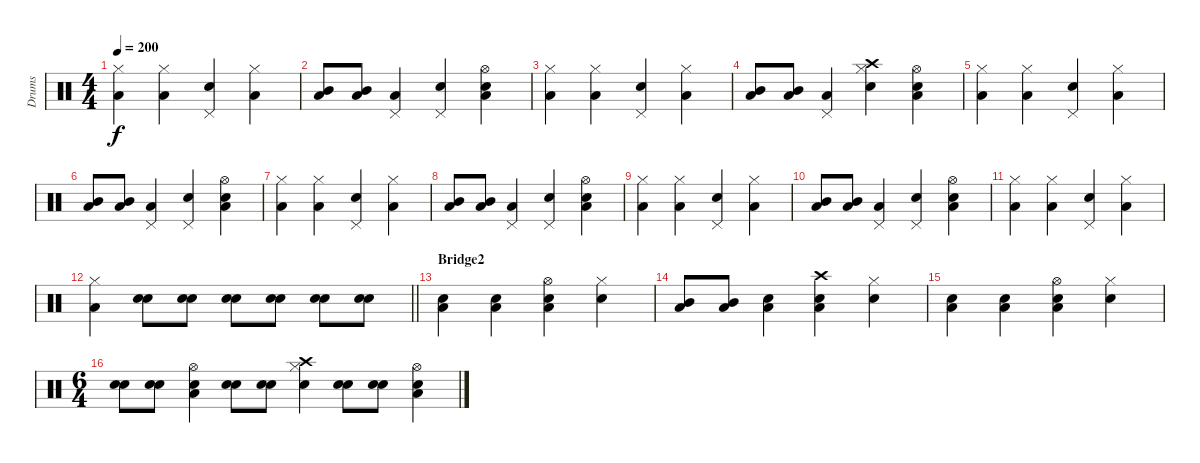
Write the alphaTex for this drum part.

\track ("Drums" "Drums") {instrument percussion}
\staff {score}
\articulation defaults
\ts (4 4)
\tempo 200
\clef neutral
\ks c
("Hi-Hat (closed)" "Low Tom (hit)").4{dy f} ("Hi-Hat (closed)" "Low Tom (hit)").4 ("Electric Snare (hit)" "Pedal Hi-Hat (hit)").4 ("Hi-Hat (closed)" "Low Tom (hit)").4 |
("Low Floor Tom (hit)" "Mid Tom (hit)").8 ("Low Floor Tom (hit)" "Mid Tom (hit)").8 ("Pedal Hi-Hat (hit)" "Low Tom (hit)").4 ("Snare (hit) 2" "Pedal Hi-Hat (hit)").4 ("Electric Snare (hit)" "Low Tom (hit)" "Hi-Hat (open)").4 |
("Hi-Hat (closed)" "Low Tom (hit)").4 ("Hi-Hat (closed)" "Low Tom (hit)").4 ("Electric Snare (hit)" "Pedal Hi-Hat (hit)").4 ("Hi-Hat (closed)" "Low Tom (hit)").4 |
("Low Floor Tom (hit)" "Mid Tom (hit)").8 ("Low Floor Tom (hit)" "Mid Tom (hit)").8 ("Pedal Hi-Hat (hit)" "Low Tom (hit)").4 ("Snare (hit) 2" "Hi-Hat (closed)" "Crash high (hit)").4 ("Electric Snare (hit)" "Low Tom (hit)" "Hi-Hat (open)").4 |
("Hi-Hat (closed)" "Low Tom (hit)").4 ("Hi-Hat (closed)" "Low Tom (hit)").4 ("Electric Snare (hit)" "Pedal Hi-Hat (hit)").4 ("Hi-Hat (closed)" "Low Tom (hit)").4 |
("Low Floor Tom (hit)" "Mid Tom (hit)").8 ("Low Floor Tom (hit)" "Mid Tom (hit)").8 ("Pedal Hi-Hat (hit)" "Low Tom (hit)").4 ("Snare (hit) 2" "Pedal Hi-Hat (hit)").4 ("Electric Snare (hit)" "Low Tom (hit)" "Hi-Hat (open)").4 |
("Hi-Hat (closed)" "Low Tom (hit)").4 ("Hi-Hat (closed)" "Low Tom (hit)").4 ("Electric Snare (hit)" "Pedal Hi-Hat (hit)").4 ("Hi-Hat (closed)" "Low Tom (hit)").4 |
("Low Floor Tom (hit)" "Mid Tom (hit)").8 ("Low Floor Tom (hit)" "Mid Tom (hit)").8 ("Pedal Hi-Hat (hit)" "Low Tom (hit)").4 ("Snare (hit) 2" "Pedal Hi-Hat (hit)").4 ("Electric Snare (hit)" "Low Tom (hit)" "Hi-Hat (open)").4 |
("Hi-Hat (closed)" "Low Tom (hit)").4 ("Hi-Hat (closed)" "Low Tom (hit)").4 ("Electric Snare (hit)" "Pedal Hi-Hat (hit)").4 ("Hi-Hat (closed)" "Low Tom (hit)").4 |
("Low Floor Tom (hit)" "Mid Tom (hit)").8 ("Low Floor Tom (hit)" "Mid Tom (hit)").8 ("Pedal Hi-Hat (hit)" "Low Tom (hit)").4 ("Snare (hit) 2" "Pedal Hi-Hat (hit)").4 ("Electric Snare (hit)" "Low Tom (hit)" "Hi-Hat (open)").4 |
("Hi-Hat (closed)" "Low Tom (hit)").4 ("Hi-Hat (closed)" "Low Tom (hit)").4 ("Electric Snare (hit)" "Pedal Hi-Hat (hit)").4 ("Hi-Hat (closed)" "Low Tom (hit)").4 |
\barLineRight lightlight
("Hi-Hat (closed)" "Low Tom (hit)").4 ("Snare (hit) 2" "Electric Snare (hit)").8 ("Snare (hit) 2" "Electric Snare (hit)").8 ("Snare (hit) 2" "Electric Snare (hit)").8 ("Snare (hit) 2" "Electric Snare (hit)").8 ("Snare (hit) 2" "Electric Snare (hit)").8 ("Snare (hit) 2" "Electric Snare (hit)").8 |
\section ("" "Bridge2")
("Electric Snare (hit)" "Low Tom (hit)").4 ("Electric Snare (hit)" "Low Tom (hit)").4 ("Snare (hit) 2" "Low Tom (hit)" "Hi-Hat (open)").4 ("Electric Snare (hit)" "Hi-Hat (closed)").4 |
("Mid Tom (hit)" "Low Tom (hit)").8 ("Mid Tom (hit)" "Low Tom (hit)").8 ("Snare (hit) 2" "Low Tom (hit)").4 ("Electric Snare (hit)" "Low Tom (hit)" "Crash high (hit)").4 ("Electric Snare (hit)" "Hi-Hat (closed)").4 |
("Electric Snare (hit)" "Low Tom (hit)").4 ("Electric Snare (hit)" "Low Tom (hit)").4 ("Snare (hit) 2" "Low Tom (hit)" "Hi-Hat (open)").4 ("Electric Snare (hit)" "Hi-Hat (closed)").4 |
\ts (6 4)
("Snare (hit) 2" "Electric Snare (hit)").8 ("Snare (hit) 2" "Electric Snare (hit)").8 ("Electric Snare (hit)" "Low Tom (hit)" "Hi-Hat (open)").4 ("Snare (hit) 2" "Electric Snare (hit)").8 ("Snare (hit) 2" "Electric Snare (hit)").8 ("Electric Snare (hit)" "Hi-Hat (closed)" "Crash high (hit)").4 ("Snare (hit) 2" "Electric Snare (hit)").8 ("Snare (hit) 2" "Electric Snare (hit)").8 ("Electric Snare (hit)" "Low Tom (hit)" "Hi-Hat (open)").4
